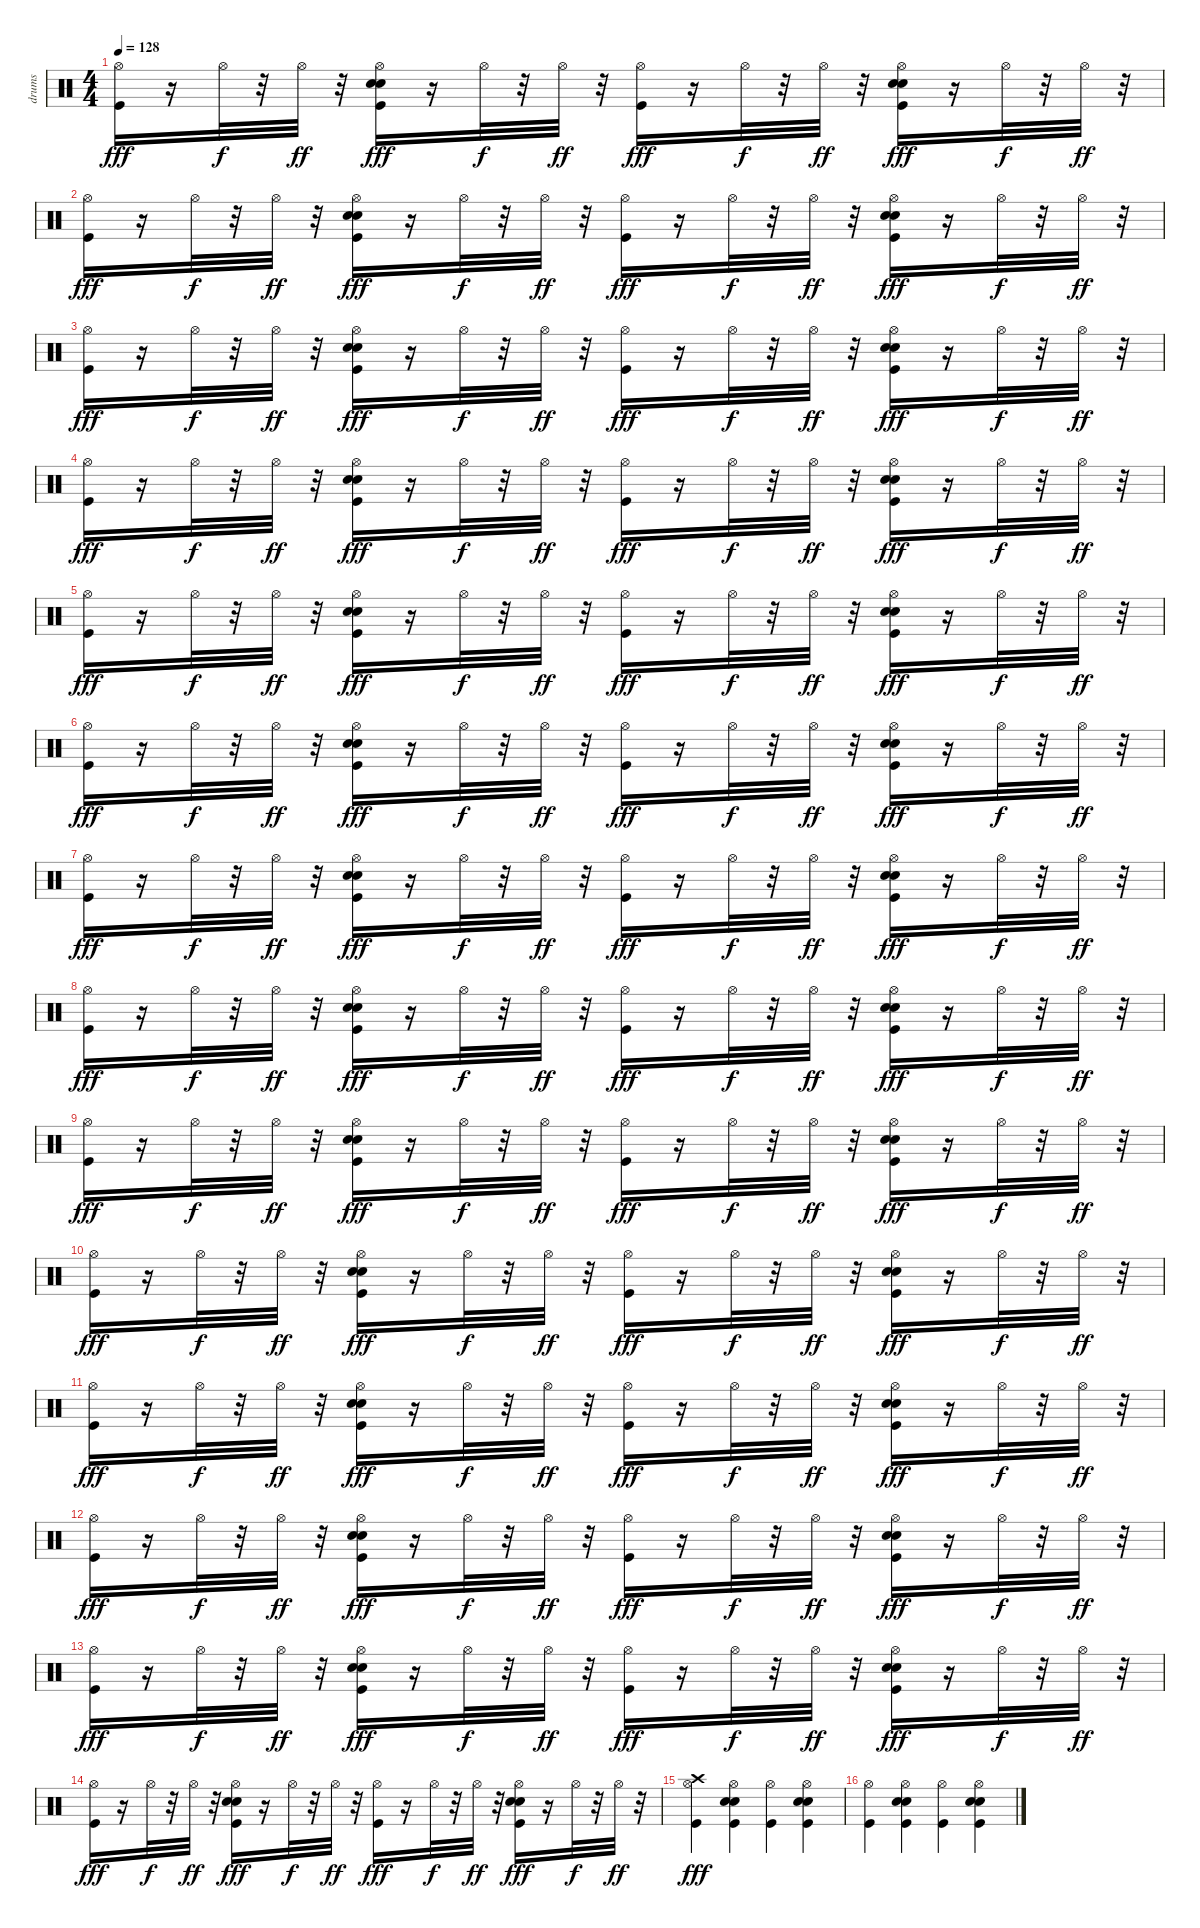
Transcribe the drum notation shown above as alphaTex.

\track ("drums" "drums") {instrument percussion}
\staff {score}
\articulation defaults
\ts (4 4)
\tempo 128
\clef neutral
\ks c
("Hi-Hat (open)" "Kick (hit)").16{dy fff} r.16 "Hi-Hat (open)".32{dy f} r.32 "Hi-Hat (open)".32{dy ff} r.32 ("Snare (hit) 2" "Electric Snare (hit)" "Kick (hit)" "Hi-Hat (open)").16{dy fff} r.16 "Hi-Hat (open)".32{dy f} r.32 "Hi-Hat (open)".32{dy ff} r.32 ("Kick (hit)" "Hi-Hat (open)").16{dy fff} r.16 "Hi-Hat (open)".32{dy f} r.32 "Hi-Hat (open)".32{dy ff} r.32 ("Kick (hit)" "Snare (hit) 2" "Electric Snare (hit)" "Hi-Hat (open)").16{dy fff} r.16 "Hi-Hat (open)".32{dy f} r.32 "Hi-Hat (open)".32{dy ff} r.32 |
("Hi-Hat (open)" "Kick (hit)").16{dy fff} r.16 "Hi-Hat (open)".32{dy f} r.32 "Hi-Hat (open)".32{dy ff} r.32 ("Snare (hit) 2" "Electric Snare (hit)" "Kick (hit)" "Hi-Hat (open)").16{dy fff} r.16 "Hi-Hat (open)".32{dy f} r.32 "Hi-Hat (open)".32{dy ff} r.32 ("Kick (hit)" "Hi-Hat (open)").16{dy fff} r.16 "Hi-Hat (open)".32{dy f} r.32 "Hi-Hat (open)".32{dy ff} r.32 ("Kick (hit)" "Snare (hit) 2" "Electric Snare (hit)" "Hi-Hat (open)").16{dy fff} r.16 "Hi-Hat (open)".32{dy f} r.32 "Hi-Hat (open)".32{dy ff} r.32 |
("Hi-Hat (open)" "Kick (hit)").16{dy fff} r.16 "Hi-Hat (open)".32{dy f} r.32 "Hi-Hat (open)".32{dy ff} r.32 ("Snare (hit) 2" "Electric Snare (hit)" "Kick (hit)" "Hi-Hat (open)").16{dy fff} r.16 "Hi-Hat (open)".32{dy f} r.32 "Hi-Hat (open)".32{dy ff} r.32 ("Kick (hit)" "Hi-Hat (open)").16{dy fff} r.16 "Hi-Hat (open)".32{dy f} r.32 "Hi-Hat (open)".32{dy ff} r.32 ("Kick (hit)" "Snare (hit) 2" "Electric Snare (hit)" "Hi-Hat (open)").16{dy fff} r.16 "Hi-Hat (open)".32{dy f} r.32 "Hi-Hat (open)".32{dy ff} r.32 |
("Hi-Hat (open)" "Kick (hit)").16{dy fff} r.16 "Hi-Hat (open)".32{dy f} r.32 "Hi-Hat (open)".32{dy ff} r.32 ("Snare (hit) 2" "Electric Snare (hit)" "Kick (hit)" "Hi-Hat (open)").16{dy fff} r.16 "Hi-Hat (open)".32{dy f} r.32 "Hi-Hat (open)".32{dy ff} r.32 ("Kick (hit)" "Hi-Hat (open)").16{dy fff} r.16 "Hi-Hat (open)".32{dy f} r.32 "Hi-Hat (open)".32{dy ff} r.32 ("Kick (hit)" "Snare (hit) 2" "Electric Snare (hit)" "Hi-Hat (open)").16{dy fff} r.16 "Hi-Hat (open)".32{dy f} r.32 "Hi-Hat (open)".32{dy ff} r.32 |
("Hi-Hat (open)" "Kick (hit)").16{dy fff} r.16 "Hi-Hat (open)".32{dy f} r.32 "Hi-Hat (open)".32{dy ff} r.32 ("Snare (hit) 2" "Electric Snare (hit)" "Kick (hit)" "Hi-Hat (open)").16{dy fff} r.16 "Hi-Hat (open)".32{dy f} r.32 "Hi-Hat (open)".32{dy ff} r.32 ("Kick (hit)" "Hi-Hat (open)").16{dy fff} r.16 "Hi-Hat (open)".32{dy f} r.32 "Hi-Hat (open)".32{dy ff} r.32 ("Kick (hit)" "Snare (hit) 2" "Electric Snare (hit)" "Hi-Hat (open)").16{dy fff} r.16 "Hi-Hat (open)".32{dy f} r.32 "Hi-Hat (open)".32{dy ff} r.32 |
("Hi-Hat (open)" "Kick (hit)").16{dy fff} r.16 "Hi-Hat (open)".32{dy f} r.32 "Hi-Hat (open)".32{dy ff} r.32 ("Snare (hit) 2" "Electric Snare (hit)" "Kick (hit)" "Hi-Hat (open)").16{dy fff} r.16 "Hi-Hat (open)".32{dy f} r.32 "Hi-Hat (open)".32{dy ff} r.32 ("Kick (hit)" "Hi-Hat (open)").16{dy fff} r.16 "Hi-Hat (open)".32{dy f} r.32 "Hi-Hat (open)".32{dy ff} r.32 ("Kick (hit)" "Snare (hit) 2" "Electric Snare (hit)" "Hi-Hat (open)").16{dy fff} r.16 "Hi-Hat (open)".32{dy f} r.32 "Hi-Hat (open)".32{dy ff} r.32 |
("Kick (hit)" "Hi-Hat (open)").16{dy fff} r.16 "Hi-Hat (open)".32{dy f} r.32 "Hi-Hat (open)".32{dy ff} r.32 ("Snare (hit) 2" "Electric Snare (hit)" "Kick (hit)" "Hi-Hat (open)").16{dy fff} r.16 "Hi-Hat (open)".32{dy f} r.32 "Hi-Hat (open)".32{dy ff} r.32 ("Kick (hit)" "Hi-Hat (open)").16{dy fff} r.16 "Hi-Hat (open)".32{dy f} r.32 "Hi-Hat (open)".32{dy ff} r.32 ("Kick (hit)" "Snare (hit) 2" "Electric Snare (hit)" "Hi-Hat (open)").16{dy fff} r.16 "Hi-Hat (open)".32{dy f} r.32 "Hi-Hat (open)".32{dy ff} r.32 |
("Hi-Hat (open)" "Kick (hit)").16{dy fff} r.16 "Hi-Hat (open)".32{dy f} r.32 "Hi-Hat (open)".32{dy ff} r.32 ("Snare (hit) 2" "Electric Snare (hit)" "Kick (hit)" "Hi-Hat (open)").16{dy fff} r.16 "Hi-Hat (open)".32{dy f} r.32 "Hi-Hat (open)".32{dy ff} r.32 ("Kick (hit)" "Hi-Hat (open)").16{dy fff} r.16 "Hi-Hat (open)".32{dy f} r.32 "Hi-Hat (open)".32{dy ff} r.32 ("Kick (hit)" "Snare (hit) 2" "Electric Snare (hit)" "Hi-Hat (open)").16{dy fff} r.16 "Hi-Hat (open)".32{dy f} r.32 "Hi-Hat (open)".32{dy ff} r.32 |
("Hi-Hat (open)" "Kick (hit)").16{dy fff} r.16 "Hi-Hat (open)".32{dy f} r.32 "Hi-Hat (open)".32{dy ff} r.32 ("Snare (hit) 2" "Electric Snare (hit)" "Kick (hit)" "Hi-Hat (open)").16{dy fff} r.16 "Hi-Hat (open)".32{dy f} r.32 "Hi-Hat (open)".32{dy ff} r.32 ("Kick (hit)" "Hi-Hat (open)").16{dy fff} r.16 "Hi-Hat (open)".32{dy f} r.32 "Hi-Hat (open)".32{dy ff} r.32 ("Kick (hit)" "Snare (hit) 2" "Electric Snare (hit)" "Hi-Hat (open)").16{dy fff} r.16 "Hi-Hat (open)".32{dy f} r.32 "Hi-Hat (open)".32{dy ff} r.32 |
("Hi-Hat (open)" "Kick (hit)").16{dy fff} r.16 "Hi-Hat (open)".32{dy f} r.32 "Hi-Hat (open)".32{dy ff} r.32 ("Snare (hit) 2" "Electric Snare (hit)" "Kick (hit)" "Hi-Hat (open)").16{dy fff} r.16 "Hi-Hat (open)".32{dy f} r.32 "Hi-Hat (open)".32{dy ff} r.32 ("Kick (hit)" "Hi-Hat (open)").16{dy fff} r.16 "Hi-Hat (open)".32{dy f} r.32 "Hi-Hat (open)".32{dy ff} r.32 ("Kick (hit)" "Snare (hit) 2" "Electric Snare (hit)" "Hi-Hat (open)").16{dy fff} r.16 "Hi-Hat (open)".32{dy f} r.32 "Hi-Hat (open)".32{dy ff} r.32 |
("Hi-Hat (open)" "Kick (hit)").16{dy fff} r.16 "Hi-Hat (open)".32{dy f} r.32 "Hi-Hat (open)".32{dy ff} r.32 ("Snare (hit) 2" "Electric Snare (hit)" "Kick (hit)" "Hi-Hat (open)").16{dy fff} r.16 "Hi-Hat (open)".32{dy f} r.32 "Hi-Hat (open)".32{dy ff} r.32 ("Kick (hit)" "Hi-Hat (open)").16{dy fff} r.16 "Hi-Hat (open)".32{dy f} r.32 "Hi-Hat (open)".32{dy ff} r.32 ("Kick (hit)" "Snare (hit) 2" "Electric Snare (hit)" "Hi-Hat (open)").16{dy fff} r.16 "Hi-Hat (open)".32{dy f} r.32 "Hi-Hat (open)".32{dy ff} r.32 |
("Hi-Hat (open)" "Kick (hit)").16{dy fff} r.16 "Hi-Hat (open)".32{dy f} r.32 "Hi-Hat (open)".32{dy ff} r.32 ("Snare (hit) 2" "Electric Snare (hit)" "Kick (hit)" "Hi-Hat (open)").16{dy fff} r.16 "Hi-Hat (open)".32{dy f} r.32 "Hi-Hat (open)".32{dy ff} r.32 ("Kick (hit)" "Hi-Hat (open)").16{dy fff} r.16 "Hi-Hat (open)".32{dy f} r.32 "Hi-Hat (open)".32{dy ff} r.32 ("Kick (hit)" "Snare (hit) 2" "Electric Snare (hit)" "Hi-Hat (open)").16{dy fff} r.16 "Hi-Hat (open)".32{dy f} r.32 "Hi-Hat (open)".32{dy ff} r.32 |
("Hi-Hat (open)" "Kick (hit)").16{dy fff} r.16 "Hi-Hat (open)".32{dy f} r.32 "Hi-Hat (open)".32{dy ff} r.32 ("Snare (hit) 2" "Electric Snare (hit)" "Kick (hit)" "Hi-Hat (open)").16{dy fff} r.16 "Hi-Hat (open)".32{dy f} r.32 "Hi-Hat (open)".32{dy ff} r.32 ("Kick (hit)" "Hi-Hat (open)").16{dy fff} r.16 "Hi-Hat (open)".32{dy f} r.32 "Hi-Hat (open)".32{dy ff} r.32 ("Kick (hit)" "Snare (hit) 2" "Electric Snare (hit)" "Hi-Hat (open)").16{dy fff} r.16 "Hi-Hat (open)".32{dy f} r.32 "Hi-Hat (open)".32{dy ff} r.32 |
("Hi-Hat (open)" "Kick (hit)").16{dy fff} r.16 "Hi-Hat (open)".32{dy f} r.32 "Hi-Hat (open)".32{dy ff} r.32 ("Snare (hit) 2" "Electric Snare (hit)" "Kick (hit)" "Hi-Hat (open)").16{dy fff} r.16 "Hi-Hat (open)".32{dy f} r.32 "Hi-Hat (open)".32{dy ff} r.32 ("Kick (hit)" "Hi-Hat (open)").16{dy fff} r.16 "Hi-Hat (open)".32{dy f} r.32 "Hi-Hat (open)".32{dy ff} r.32 ("Kick (hit)" "Snare (hit) 2" "Electric Snare (hit)" "Hi-Hat (open)").16{dy fff} r.16 "Hi-Hat (open)".32{dy f} r.32 "Hi-Hat (open)".32{dy ff} r.32 |
("Kick (hit)" "Crash high (hit)" "Hi-Hat (open)").4{dy fff} ("Kick (hit)" "Snare (hit) 2" "Electric Snare (hit)" "Hi-Hat (open)").4 ("Kick (hit)" "Hi-Hat (open)").4 ("Kick (hit)" "Snare (hit) 2" "Electric Snare (hit)" "Hi-Hat (open)").4 |
("Hi-Hat (open)" "Kick (hit)").4 ("Kick (hit)" "Snare (hit) 2" "Electric Snare (hit)" "Hi-Hat (open)").4 ("Kick (hit)" "Hi-Hat (open)").4 ("Kick (hit)" "Snare (hit) 2" "Electric Snare (hit)" "Hi-Hat (open)").4
